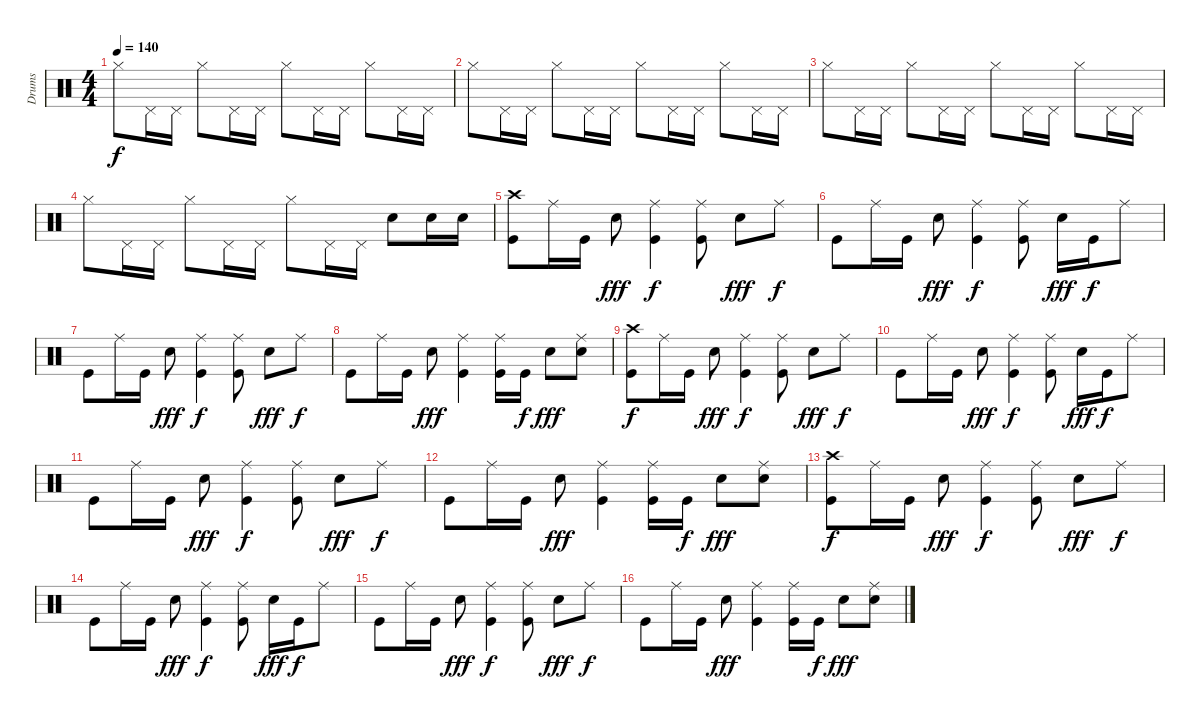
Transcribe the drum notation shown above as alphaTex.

\track ("Drums" "Drums") {instrument percussion}
\staff {score}
\articulation defaults
\ts (4 4)
\tempo 140
\clef neutral
\ks c "Hi-Hat (closed)".8{dy f} "Pedal Hi-Hat (hit)".16 "Pedal Hi-Hat (hit)".16 "Hi-Hat (closed)".8 "Pedal Hi-Hat (hit)".16 "Pedal Hi-Hat (hit)".16 "Hi-Hat (closed)".8 "Pedal Hi-Hat (hit)".16 "Pedal Hi-Hat (hit)".16 "Hi-Hat (closed)".8 "Pedal Hi-Hat (hit)".16 "Pedal Hi-Hat (hit)".16
|
"Hi-Hat (closed)".8 "Pedal Hi-Hat (hit)".16 "Pedal Hi-Hat (hit)".16 "Hi-Hat (closed)".8 "Pedal Hi-Hat (hit)".16 "Pedal Hi-Hat (hit)".16 "Hi-Hat (closed)".8 "Pedal Hi-Hat (hit)".16 "Pedal Hi-Hat (hit)".16 "Hi-Hat (closed)".8 "Pedal Hi-Hat (hit)".16 "Pedal Hi-Hat (hit)".16 |
"Hi-Hat (closed)".8 "Pedal Hi-Hat (hit)".16 "Pedal Hi-Hat (hit)".16 "Hi-Hat (closed)".8 "Pedal Hi-Hat (hit)".16 "Pedal Hi-Hat (hit)".16 "Hi-Hat (closed)".8 "Pedal Hi-Hat (hit)".16 "Pedal Hi-Hat (hit)".16 "Hi-Hat (closed)".8 "Pedal Hi-Hat (hit)".16 "Pedal Hi-Hat (hit)".16 |
"Hi-Hat (closed)".8 "Pedal Hi-Hat (hit)".16 "Pedal Hi-Hat (hit)".16 "Hi-Hat (closed)".8 "Pedal Hi-Hat (hit)".16 "Pedal Hi-Hat (hit)".16 "Hi-Hat (closed)".8 "Pedal Hi-Hat (hit)".16 "Pedal Hi-Hat (hit)".16 "Electric Snare (hit)".8 "Electric Snare (hit)".16 "Electric Snare (hit)".16 |
("Crash high (hit)" "Kick (hit)").8 "Ride (middle)".16 "Kick (hit)".16 "Electric Snare (hit)".8{dy fff} ("Ride (middle)" "Kick (hit)").4{dy f} ("Ride (middle)" "Kick (hit)").8 "Electric Snare (hit)".8{dy fff} "Ride (middle)".8{dy f} |
"Kick (hit)".8 "Ride (middle)".16 "Kick (hit)".16 "Electric Snare (hit)".8{dy fff} ("Ride (middle)" "Kick (hit)").4{dy f} ("Ride (middle)" "Kick (hit)").8 "Electric Snare (hit)".16{dy fff} "Kick (hit)".16{dy f} "Ride (middle)".8 |
"Kick (hit)".8 "Ride (middle)".16 "Kick (hit)".16 "Electric Snare (hit)".8{dy fff} ("Ride (middle)" "Kick (hit)").4{dy f} ("Ride (middle)" "Kick (hit)").8 "Electric Snare (hit)".8{dy fff} "Ride (middle)".8{dy f} |
"Kick (hit)".8 "Ride (middle)".16 "Kick (hit)".16 "Electric Snare (hit)".8{dy fff} ("Ride (middle)" "Kick (hit)").4 ("Ride (middle)" "Kick (hit)").16 "Kick (hit)".16{dy f} "Electric Snare (hit)".8{dy fff} ("Electric Snare (hit)" "Ride (middle)").8 |
("Crash high (hit)" "Kick (hit)").8{dy f} "Ride (middle)".16 "Kick (hit)".16 "Electric Snare (hit)".8{dy fff} ("Ride (middle)" "Kick (hit)").4{dy f} ("Ride (middle)" "Kick (hit)").8 "Electric Snare (hit)".8{dy fff} "Ride (middle)".8{dy f} |
"Kick (hit)".8 "Ride (middle)".16 "Kick (hit)".16 "Electric Snare (hit)".8{dy fff} ("Ride (middle)" "Kick (hit)").4{dy f} ("Ride (middle)" "Kick (hit)").8 "Electric Snare (hit)".16{dy fff} "Kick (hit)".16{dy f} "Ride (middle)".8 |
"Kick (hit)".8 "Ride (middle)".16 "Kick (hit)".16 "Electric Snare (hit)".8{dy fff} ("Ride (middle)" "Kick (hit)").4{dy f} ("Ride (middle)" "Kick (hit)").8 "Electric Snare (hit)".8{dy fff} "Ride (middle)".8{dy f} |
"Kick (hit)".8 "Ride (middle)".16 "Kick (hit)".16 "Electric Snare (hit)".8{dy fff} ("Ride (middle)" "Kick (hit)").4 ("Ride (middle)" "Kick (hit)").16 "Kick (hit)".16{dy f} "Electric Snare (hit)".8{dy fff} ("Electric Snare (hit)" "Ride (middle)").8 |
("Crash high (hit)" "Kick (hit)").8{dy f} "Ride (middle)".16 "Kick (hit)".16 "Electric Snare (hit)".8{dy fff} ("Ride (middle)" "Kick (hit)").4{dy f} ("Ride (middle)" "Kick (hit)").8 "Electric Snare (hit)".8{dy fff} "Ride (middle)".8{dy f} |
"Kick (hit)".8 "Ride (middle)".16 "Kick (hit)".16 "Electric Snare (hit)".8{dy fff} ("Ride (middle)" "Kick (hit)").4{dy f} ("Ride (middle)" "Kick (hit)").8 "Electric Snare (hit)".16{dy fff} "Kick (hit)".16{dy f} "Ride (middle)".8 |
"Kick (hit)".8 "Ride (middle)".16 "Kick (hit)".16 "Electric Snare (hit)".8{dy fff} ("Ride (middle)" "Kick (hit)").4{dy f} ("Ride (middle)" "Kick (hit)").8 "Electric Snare (hit)".8{dy fff} "Ride (middle)".8{dy f} |
"Kick (hit)".8 "Ride (middle)".16 "Kick (hit)".16 "Electric Snare (hit)".8{dy fff} ("Ride (middle)" "Kick (hit)").4 ("Ride (middle)" "Kick (hit)").16 "Kick (hit)".16{dy f} "Electric Snare (hit)".8{dy fff} ("Electric Snare (hit)" "Ride (middle)").8
